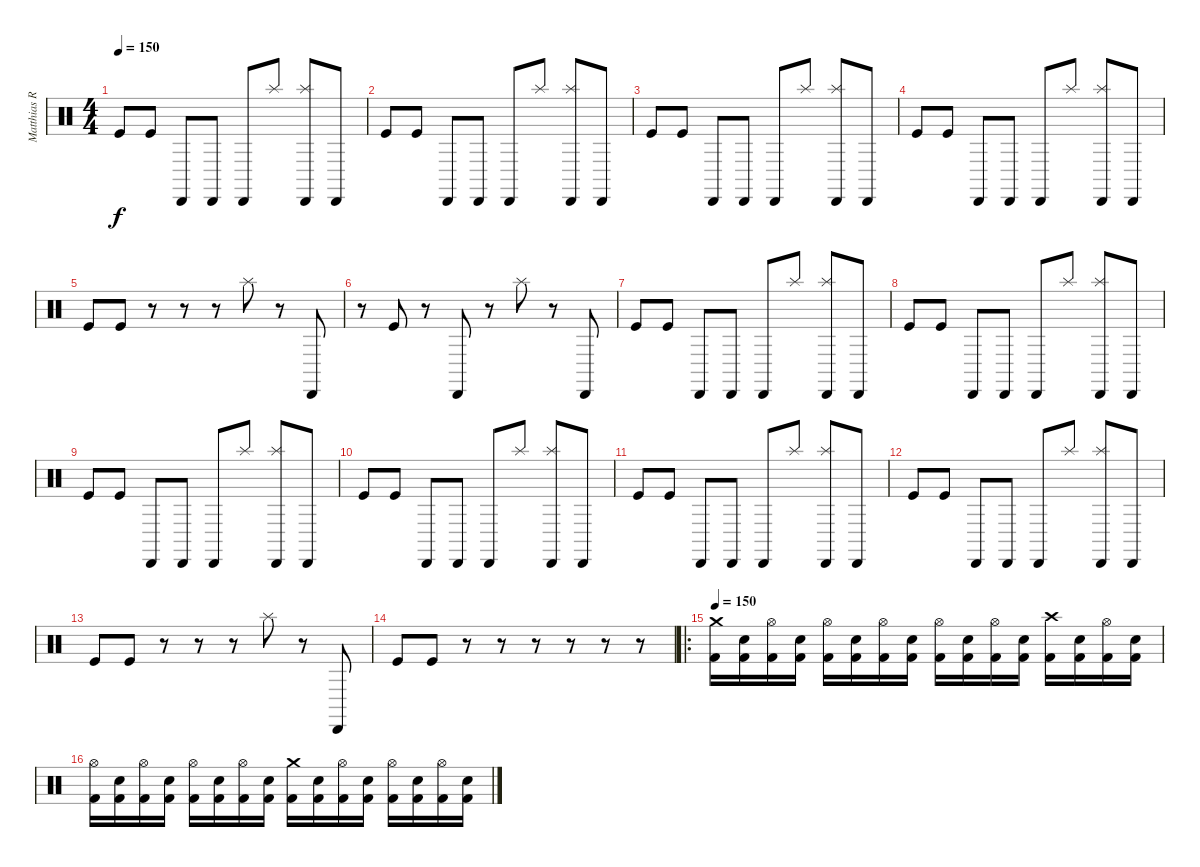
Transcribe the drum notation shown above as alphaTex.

\track ("Matthias Rodig" "Matthias R") {instrument percussion}
\staff {score}
\articulation defaults
\ts (4 4)
\tempo 150
\clef neutral
\ks c "Kick (hit)".8{dy f} "Kick (hit)".8 "Cabasa (hit)".8 "Cabasa (hit)".8 "Cabasa (hit)".8 "Splash (hit)".8
("Splash (hit)" "Cabasa (hit)").8 "Cabasa (hit)".8 |
"Kick (hit)".8 "Kick (hit)".8 "Cabasa (hit)".8 "Cabasa (hit)".8 "Cabasa (hit)".8 "Splash (hit)".8 ("Splash (hit)" "Cabasa (hit)").8 "Cabasa (hit)".8 |
"Kick (hit)".8 "Kick (hit)".8 "Cabasa (hit)".8 "Cabasa (hit)".8 "Cabasa (hit)".8 "Splash (hit)".8 ("Splash (hit)" "Cabasa (hit)").8 "Cabasa (hit)".8 |
"Kick (hit)".8 "Kick (hit)".8 "Cabasa (hit)".8 "Cabasa (hit)".8 "Cabasa (hit)".8 "Splash (hit)".8 ("Splash (hit)" "Cabasa (hit)").8 "Cabasa (hit)".8 |
"Kick (hit)".8 "Kick (hit)".8 r.8 r.8 r.8 "Splash (hit)".8 r.8 "Cabasa (hit)".8 |
r.8 "Kick (hit)".8 r.8 "Cabasa (hit)".8 r.8 "Splash (hit)".8 r.8 "Cabasa (hit)".8 |
"Kick (hit)".8 "Kick (hit)".8 "Cabasa (hit)".8 "Cabasa (hit)".8 "Cabasa (hit)".8 "Splash (hit)".8 ("Splash (hit)" "Cabasa (hit)").8 "Cabasa (hit)".8 |
"Kick (hit)".8 "Kick (hit)".8 "Cabasa (hit)".8 "Cabasa (hit)".8 "Cabasa (hit)".8 "Splash (hit)".8 ("Splash (hit)" "Cabasa (hit)").8 "Cabasa (hit)".8 |
"Kick (hit)".8 "Kick (hit)".8 "Cabasa (hit)".8 "Cabasa (hit)".8 "Cabasa (hit)".8 "Splash (hit)".8 ("Splash (hit)" "Cabasa (hit)").8 "Cabasa (hit)".8 |
"Kick (hit)".8 "Kick (hit)".8 "Cabasa (hit)".8 "Cabasa (hit)".8 "Cabasa (hit)".8 "Splash (hit)".8 ("Splash (hit)" "Cabasa (hit)").8 "Cabasa (hit)".8 |
"Kick (hit)".8 "Kick (hit)".8 "Cabasa (hit)".8 "Cabasa (hit)".8 "Cabasa (hit)".8 "Splash (hit)".8 ("Splash (hit)" "Cabasa (hit)").8 "Cabasa (hit)".8 |
"Kick (hit)".8 "Kick (hit)".8 "Cabasa (hit)".8 "Cabasa (hit)".8 "Cabasa (hit)".8 "Splash (hit)".8 ("Splash (hit)" "Cabasa (hit)").8 "Cabasa (hit)".8 |
"Kick (hit)".8 "Kick (hit)".8 r.8 r.8 r.8 "Splash (hit)".8 r.8 "Cabasa (hit)".8 |
"Kick (hit)".8 "Kick (hit)".8 r.8 r.8 r.8 r.8 r.8 r.8 |
\ro
\tempo 150
("Kick (hit) 2" "Crash medium (hit)").16{volume 14} ("Kick (hit) 2" "Snare (hit) 2").16 ("Kick (hit) 2" "Hi-Hat (open)").16 ("Kick (hit) 2" "Snare (hit) 2").16 ("Kick (hit) 2" "Hi-Hat (open)").16 ("Kick (hit) 2" "Snare (hit) 2").16 ("Kick (hit) 2" "Hi-Hat (open)").16 ("Kick (hit) 2" "Snare (hit) 2").16 ("Kick (hit) 2" "Hi-Hat (open)").16 ("Kick (hit) 2" "Snare (hit) 2").16 ("Kick (hit) 2" "Hi-Hat (open)").16 ("Kick (hit) 2" "Snare (hit) 2").16 ("Kick (hit) 2" "Crash high (hit)").16 ("Kick (hit) 2" "Snare (hit) 2").16 ("Kick (hit) 2" "Hi-Hat (open)").16 ("Kick (hit) 2" "Snare (hit) 2").16 |
("Kick (hit) 2" "Hi-Hat (open)").16 ("Kick (hit) 2" "Snare (hit) 2").16 ("Kick (hit) 2" "Hi-Hat (open)").16 ("Kick (hit) 2" "Snare (hit) 2").16 ("Kick (hit) 2" "Hi-Hat (open)").16 ("Kick (hit) 2" "Snare (hit) 2").16 ("Kick (hit) 2" "Hi-Hat (open)").16 ("Kick (hit) 2" "Snare (hit) 2").16 ("Kick (hit) 2" "Crash medium (hit)").16 ("Kick (hit) 2" "Snare (hit) 2").16 ("Kick (hit) 2" "Hi-Hat (open)").16 ("Kick (hit) 2" "Snare (hit) 2").16 ("Kick (hit) 2" "Hi-Hat (open)").16 ("Kick (hit) 2" "Snare (hit) 2").16 ("Kick (hit) 2" "Hi-Hat (open)").16 ("Kick (hit) 2" "Snare (hit) 2").16
